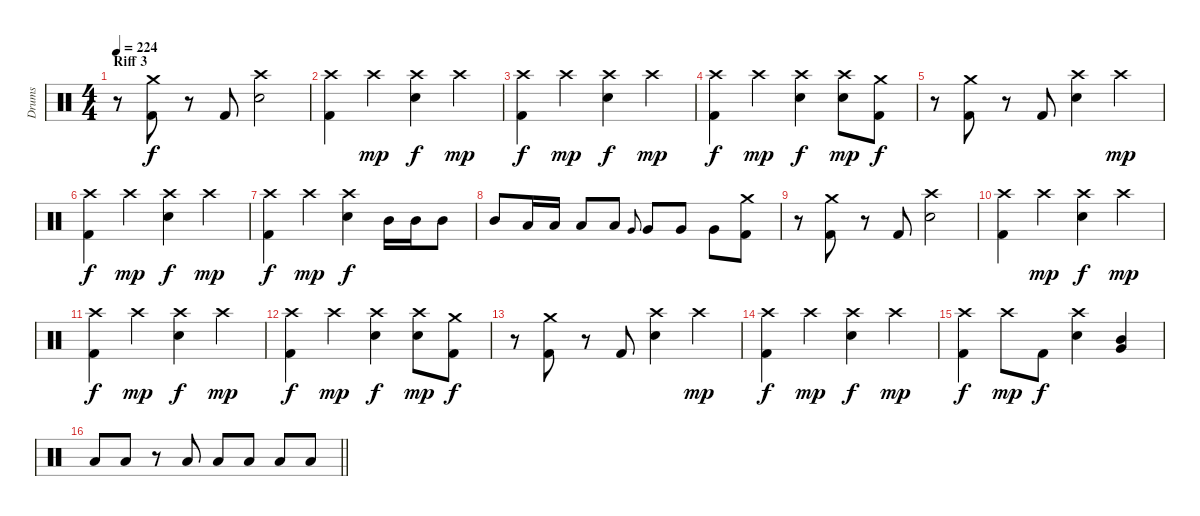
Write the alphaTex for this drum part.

\track ("Drums" "Drums") {instrument percussion}
\staff {score}
\articulation defaults
\ts (4 4)
\section ("" "Riff 3")
\tempo 224
\clef neutral
\ks c
r.8{dy f} ("Kick (hit) 2" "Crash medium (hit)").8 r.8 "Kick (hit) 2".8 ("Electric Snare (hit)" "Crash high (hit)").2 |
("Crash high (hit)" "Kick (hit) 2").4 "Crash high (hit)".4{dy mp} ("Electric Snare (hit)" "Crash high (hit)").4{dy f} "Crash high (hit)".4{dy mp} |
("Crash high (hit)" "Kick (hit) 2").4{dy f} "Crash high (hit)".4{dy mp} ("Electric Snare (hit)" "Crash high (hit)").4{dy f} "Crash high (hit)".4{dy mp} |
("Crash high (hit)" "Kick (hit) 2").4{dy f} "Crash high (hit)".4{dy mp} ("Electric Snare (hit)" "Crash high (hit)").4{dy f} ("Electric Snare (hit)" "Crash high (hit)").8{dy mp} ("Kick (hit) 2" "Crash medium (hit)").8{dy f} |
r.8 ("Kick (hit) 2" "Crash medium (hit)").8 r.8 "Kick (hit) 2".8 ("Electric Snare (hit)" "Crash high (hit)").4 "Crash high (hit)".4{dy mp} |
("Crash high (hit)" "Kick (hit) 2").4{dy f} "Crash high (hit)".4{dy mp} ("Electric Snare (hit)" "Crash high (hit)").4{dy f} "Crash high (hit)".4{dy mp} |
("Crash high (hit)" "Kick (hit) 2").4{dy f} "Crash high (hit)".4{dy mp} ("Electric Snare (hit)" "Crash high (hit)").4{dy f} "Mid Tom (hit)".16 "Mid Tom (hit)".16 "Mid Tom (hit)".8 |
"Mid Tom (hit)".8 "Low Tom (hit)".16 "Low Tom (hit)".16 "Low Tom (hit)".8 "Low Tom (hit)".8 "Very Low Tom (hit)".8{gr onbeat} "Very Low Tom (hit)".8 "Very Low Tom (hit)".8 "Very Low Tom (hit)".8 ("Kick (hit) 2" "Crash medium (hit)").8 |
r.8 ("Kick (hit) 2" "Crash medium (hit)").8 r.8 "Kick (hit) 2".8 ("Electric Snare (hit)" "Crash high (hit)").2 |
("Crash high (hit)" "Kick (hit) 2").4 "Crash high (hit)".4{dy mp} ("Electric Snare (hit)" "Crash high (hit)").4{dy f} "Crash high (hit)".4{dy mp} |
("Crash high (hit)" "Kick (hit) 2").4{dy f} "Crash high (hit)".4{dy mp} ("Electric Snare (hit)" "Crash high (hit)").4{dy f} "Crash high (hit)".4{dy mp} |
("Crash high (hit)" "Kick (hit) 2").4{dy f} "Crash high (hit)".4{dy mp} ("Electric Snare (hit)" "Crash high (hit)").4{dy f} ("Electric Snare (hit)" "Crash high (hit)").8{dy mp} ("Kick (hit) 2" "Crash medium (hit)").8{dy f} |
r.8 ("Kick (hit) 2" "Crash medium (hit)").8 r.8 "Kick (hit) 2".8 ("Electric Snare (hit)" "Crash high (hit)").4 "Crash high (hit)".4{dy mp} |
("Crash high (hit)" "Kick (hit) 2").4{dy f} "Crash high (hit)".4{dy mp} ("Electric Snare (hit)" "Crash high (hit)").4{dy f} "Crash high (hit)".4{dy mp} |
("Crash high (hit)" "Kick (hit) 2").4{dy f} "Crash high (hit)".8{dy mp} "Kick (hit) 2".8{dy f} ("Electric Snare (hit)" "Crash high (hit)").4 ("Mid Tom (hit)" "Very Low Tom (hit)").4 |
\barLineRight lightlight "Low Tom (hit)".8 "Low Tom (hit)".8
r.8 "Low Tom (hit)".8 "Low Floor Tom (hit)".8 "Low Floor Tom (hit)".8 "Low Floor Tom (hit)".8 "Low Floor Tom (hit)".8
